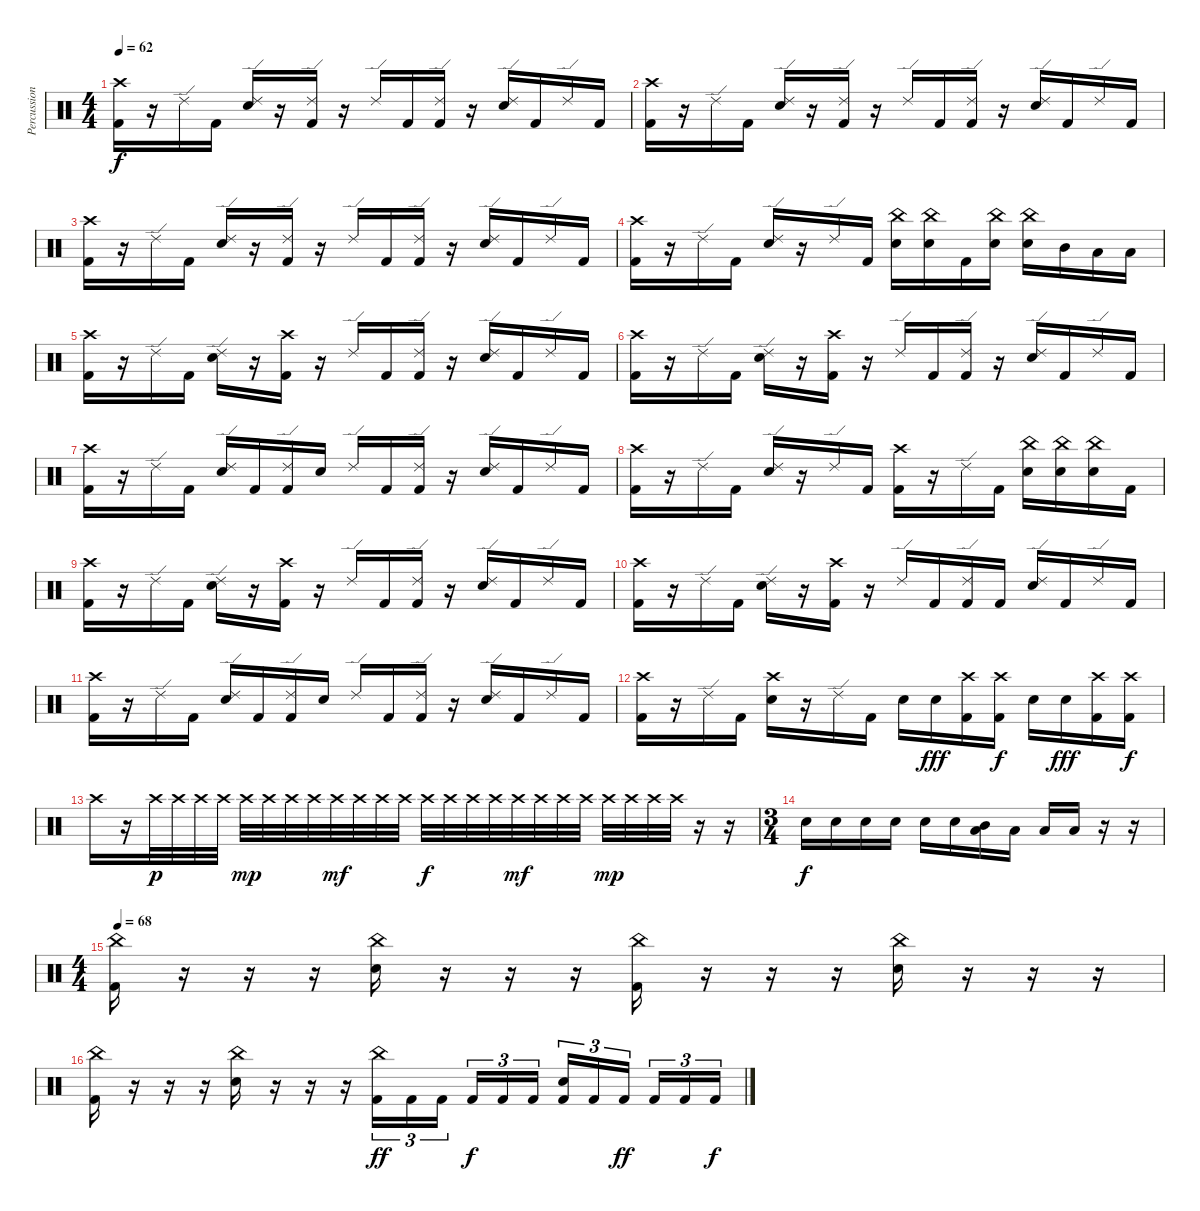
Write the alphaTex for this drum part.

\track ("Percussion" "Percussion") {instrument percussion}
\staff {score}
\articulation defaults
\ts (4 4)
\tempo 62
\clef neutral
\ks c
("Crash high (hit)" "Kick (hit) 2").16{dy f} r.16 "Ride (edge) 2".16 "Kick (hit) 2".16 ("Ride (edge) 2" "Snare (hit) 2").16 r.16 ("Ride (edge) 2" "Kick (hit) 2").16 r.16 "Ride (edge) 2".16 "Kick (hit) 2".16 ("Ride (edge) 2" "Kick (hit) 2").16 r.16 ("Ride (edge) 2" "Snare (hit) 2").16 "Kick (hit) 2".16 "Ride (edge) 2".16 "Kick (hit) 2".16 |
("Crash high (hit)" "Kick (hit) 2").16 r.16 "Ride (edge) 2".16 "Kick (hit) 2".16 ("Ride (edge) 2" "Snare (hit) 2").16 r.16 ("Ride (edge) 2" "Kick (hit) 2").16 r.16 "Ride (edge) 2".16 "Kick (hit) 2".16 ("Ride (edge) 2" "Kick (hit) 2").16 r.16 ("Ride (edge) 2" "Snare (hit) 2").16 "Kick (hit) 2".16 "Ride (edge) 2".16 "Kick (hit) 2".16 |
("Crash high (hit)" "Kick (hit) 2").16 r.16 "Ride (edge) 2".16 "Kick (hit) 2".16 ("Ride (edge) 2" "Snare (hit) 2").16 r.16 ("Ride (edge) 2" "Kick (hit) 2").16 r.16 "Ride (edge) 2".16 "Kick (hit) 2".16 ("Ride (edge) 2" "Kick (hit) 2").16 r.16 ("Ride (edge) 2" "Snare (hit) 2").16 "Kick (hit) 2".16 "Ride (edge) 2".16 "Kick (hit) 2".16 |
("Crash high (hit)" "Kick (hit) 2").16 r.16 "Ride (edge) 2".16 "Kick (hit) 2".16 ("Ride (edge) 2" "Snare (hit) 2").16 r.16 "Ride (edge) 2".16 "Kick (hit) 2".16 ("China (hit)" "Snare (hit) 2").16 ("China (hit)" "Snare (hit) 2").16 "Kick (hit) 2".16 ("China (hit)" "Snare (hit) 2").16 ("China (hit)" "Snare (hit) 2").16 "Mid Tom (hit)".16 "Low Tom (hit)".16 "Low Floor Tom (hit)".16 |
("Crash high (hit)" "Kick (hit) 2").16 r.16 "Ride (edge) 2".16 "Kick (hit) 2".16 ("Ride (edge) 2" "Snare (hit) 2").16 r.16 ("Crash high (hit)" "Kick (hit) 2").16 r.16 "Ride (edge) 2".16 "Kick (hit) 2".16 ("Ride (edge) 2" "Kick (hit) 2").16 r.16 ("Ride (edge) 2" "Snare (hit) 2").16 "Kick (hit) 2".16 "Ride (edge) 2".16 "Kick (hit) 2".16 |
("Crash high (hit)" "Kick (hit) 2").16 r.16 "Ride (edge) 2".16 "Kick (hit) 2".16 ("Ride (edge) 2" "Snare (hit) 2").16 r.16 ("Crash high (hit)" "Kick (hit) 2").16 r.16 "Ride (edge) 2".16 "Kick (hit) 2".16 ("Ride (edge) 2" "Kick (hit) 2").16 r.16 ("Ride (edge) 2" "Snare (hit) 2").16 "Kick (hit) 2".16 "Ride (edge) 2".16 "Kick (hit) 2".16 |
("Crash high (hit)" "Kick (hit) 2").16 r.16 "Ride (edge) 2".16 "Kick (hit) 2".16 ("Ride (edge) 2" "Snare (hit) 2").16 "Kick (hit) 2".16 ("Ride (edge) 2" "Kick (hit) 2").16 "Snare (hit) 2".16 "Ride (edge) 2".16 "Kick (hit) 2".16 ("Ride (edge) 2" "Kick (hit) 2").16 r.16 ("Ride (edge) 2" "Snare (hit) 2").16 "Kick (hit) 2".16 "Ride (edge) 2".16 "Kick (hit) 2".16 |
("Crash high (hit)" "Kick (hit) 2").16 r.16 "Ride (edge) 2".16 "Kick (hit) 2".16 ("Ride (edge) 2" "Snare (hit) 2").16 r.16 "Ride (edge) 2".16 "Kick (hit) 2".16 ("Crash high (hit)" "Kick (hit) 2").16 r.16 "Ride (edge) 2".16 "Kick (hit) 2".16 ("China (hit)" "Snare (hit) 2").16 ("China (hit)" "Snare (hit) 2").16 ("China (hit)" "Snare (hit) 2").16 "Kick (hit) 2".16 |
("Crash high (hit)" "Kick (hit) 2").16 r.16 "Ride (edge) 2".16 "Kick (hit) 2".16 ("Ride (edge) 2" "Snare (hit) 2").16 r.16 ("Crash high (hit)" "Kick (hit) 2").16 r.16 "Ride (edge) 2".16 "Kick (hit) 2".16 ("Ride (edge) 2" "Kick (hit) 2").16 r.16 ("Ride (edge) 2" "Snare (hit) 2").16 "Kick (hit) 2".16 "Ride (edge) 2".16 "Kick (hit) 2".16 |
("Crash high (hit)" "Kick (hit) 2").16 r.16 "Ride (edge) 2".16 "Kick (hit) 2".16 ("Ride (edge) 2" "Snare (hit) 2").16 r.16 ("Crash high (hit)" "Kick (hit) 2").16 r.16 "Ride (edge) 2".16 "Kick (hit) 2".16 ("Ride (edge) 2" "Kick (hit) 2").16 "Kick (hit) 2".16 ("Ride (edge) 2" "Snare (hit) 2").16 "Kick (hit) 2".16 "Ride (edge) 2".16 "Kick (hit) 2".16 |
("Crash high (hit)" "Kick (hit) 2").16 r.16 "Ride (edge) 2".16 "Kick (hit) 2".16 ("Ride (edge) 2" "Snare (hit) 2").16 "Kick (hit) 2".16 ("Ride (edge) 2" "Kick (hit) 2").16 "Snare (hit) 2".16 "Ride (edge) 2".16 "Kick (hit) 2".16 ("Ride (edge) 2" "Kick (hit) 2").16 r.16 ("Ride (edge) 2" "Snare (hit) 2").16 "Kick (hit) 2".16 "Ride (edge) 2".16 "Kick (hit) 2".16 |
("Crash high (hit)" "Kick (hit) 2").16 r.16 "Ride (edge) 2".16 "Kick (hit) 2".16 ("Crash high (hit)" "Snare (hit) 2").16 r.16 "Ride (edge) 2".16 "Kick (hit) 2".16 "Snare (hit) 2".16 "Snare (hit) 2".16{dy fff} ("Crash high (hit)" "Kick (hit) 2").16 ("Crash high (hit)" "Kick (hit) 2").16{dy f} "Snare (hit) 2".16 "Snare (hit) 2".16{dy fff} ("Crash high (hit)" "Kick (hit) 2").16 ("Crash high (hit)" "Kick (hit) 2").16{dy f} |
"Crash high (hit)".16 r.16 "Crash high (hit)".32{dy p} "Crash high (hit)".32 "Crash high (hit)".32 "Crash high (hit)".32 "Crash high (hit)".32{dy mp} "Crash high (hit)".32 "Crash high (hit)".32 "Crash high (hit)".32 "Crash high (hit)".32{dy mf} "Crash high (hit)".32 "Crash high (hit)".32 "Crash high (hit)".32 "Crash high (hit)".32{dy f} "Crash high (hit)".32 "Crash high (hit)".32 "Crash high (hit)".32 "Crash high (hit)".32{dy mf} "Crash high (hit)".32 "Crash high (hit)".32 "Crash high (hit)".32 "Crash high (hit)".32{dy mp} "Crash high (hit)".32 "Crash high (hit)".32 "Crash high (hit)".32 r.16 r.16 |
\ts (3 4)
"Snare (hit) 2".16{dy f} "Snare (hit) 2".16 "Snare (hit) 2".16 "Snare (hit) 2".16 "Snare (hit) 2".16 "Snare (hit) 2".16 ("Mid Tom (hit)" "Low Tom (hit)").16 "Low Tom (hit)".16 "Low Floor Tom (hit)".16 "Low Floor Tom (hit)".16 r.16 r.16 |
\ts (4 4)
\tempo 68
("China (hit)" "Kick (hit) 2").16 r.16 r.16 r.16 ("China (hit)" "Snare (hit) 2").16 r.16 r.16 r.16 ("China (hit)" "Kick (hit) 2").16 r.16 r.16 r.16 ("China (hit)" "Snare (hit) 2").16 r.16 r.16 r.16 |
("China (hit)" "Kick (hit) 2").16 r.16 r.16 r.16 ("China (hit)" "Snare (hit) 2").16 r.16 r.16 r.16 ("China (hit)" "Kick (hit) 2").16{tu (3 2) dy ff} "Kick (hit) 2".16{tu (3 2)} "Kick (hit) 2".16{tu (3 2) beam splitsecondary} "Kick (hit) 2".16{tu (3 2) dy f} "Kick (hit) 2".16{tu (3 2)} "Kick (hit) 2".16{tu (3 2)} ("Snare (hit) 2" "Kick (hit) 2").16{tu (3 2)} "Kick (hit) 2".16{tu (3 2)} "Kick (hit) 2".16{tu (3 2) dy ff beam splitsecondary} "Kick (hit) 2".16{tu (3 2)} "Kick (hit) 2".16{tu (3 2)} "Kick (hit) 2".16{tu (3 2) dy f}
